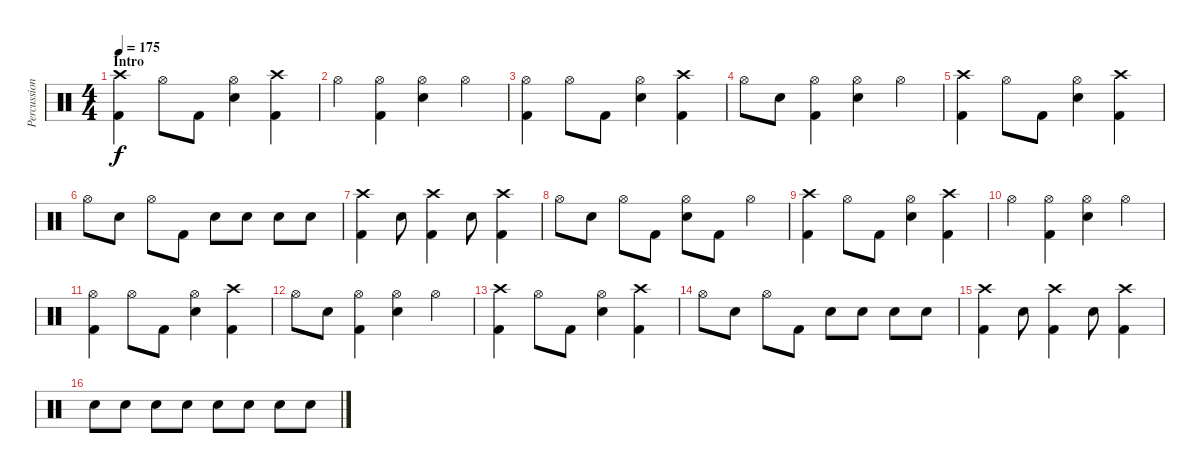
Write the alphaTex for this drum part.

\track ("Percussion" "Percussion") {instrument percussion}
\staff {score}
\articulation defaults
\ts (4 4)
\section ("" "Intro")
\tempo 175
\clef neutral
\ks c
("Crash high (hit)" "Kick (hit) 2").4{dy f} "Hi-Hat (open)".8 "Kick (hit) 2".8 ("Hi-Hat (open)" "Electric Snare (hit)").4 ("Crash high (hit)" "Kick (hit) 2").4 |
"Hi-Hat (open)".4 ("Hi-Hat (open)" "Kick (hit) 2").4 ("Hi-Hat (open)" "Electric Snare (hit)").4 "Hi-Hat (open)".4 |
("Hi-Hat (open)" "Kick (hit) 2").4 "Hi-Hat (open)".8 "Kick (hit) 2".8 ("Hi-Hat (open)" "Electric Snare (hit)").4 ("Crash high (hit)" "Kick (hit) 2").4 |
"Hi-Hat (open)".8 "Electric Snare (hit)".8 ("Hi-Hat (open)" "Kick (hit) 2").4 ("Hi-Hat (open)" "Electric Snare (hit)").4 "Hi-Hat (open)".4 |
("Crash high (hit)" "Kick (hit) 2").4 "Hi-Hat (open)".8 "Kick (hit) 2".8 ("Hi-Hat (open)" "Electric Snare (hit)").4 ("Crash high (hit)" "Kick (hit) 2").4 |
"Hi-Hat (open)".8 "Electric Snare (hit)".8 "Hi-Hat (open)".8 "Kick (hit) 2".8 "Electric Snare (hit)".8 "Electric Snare (hit)".8 "Electric Snare (hit)".8 "Electric Snare (hit)".8 |
("Crash high (hit)" "Kick (hit) 2").4 "Electric Snare (hit)".8 ("Crash high (hit)" "Kick (hit) 2").4 "Electric Snare (hit)".8 ("Crash high (hit)" "Kick (hit) 2").4 |
"Hi-Hat (open)".8 "Electric Snare (hit)".8 "Hi-Hat (open)".8 "Kick (hit) 2".8 ("Hi-Hat (open)" "Electric Snare (hit)").8 "Kick (hit) 2".8 "Hi-Hat (open)".4 |
("Crash high (hit)" "Kick (hit) 2").4 "Hi-Hat (open)".8 "Kick (hit) 2".8 ("Hi-Hat (open)" "Electric Snare (hit)").4 ("Crash high (hit)" "Kick (hit) 2").4 |
"Hi-Hat (open)".4 ("Hi-Hat (open)" "Kick (hit) 2").4 ("Hi-Hat (open)" "Electric Snare (hit)").4 "Hi-Hat (open)".4 |
("Hi-Hat (open)" "Kick (hit) 2").4 "Hi-Hat (open)".8 "Kick (hit) 2".8 ("Hi-Hat (open)" "Electric Snare (hit)").4 ("Crash high (hit)" "Kick (hit) 2").4 |
"Hi-Hat (open)".8 "Electric Snare (hit)".8 ("Hi-Hat (open)" "Kick (hit) 2").4 ("Hi-Hat (open)" "Electric Snare (hit)").4 "Hi-Hat (open)".4 |
("Crash high (hit)" "Kick (hit) 2").4 "Hi-Hat (open)".8 "Kick (hit) 2".8 ("Hi-Hat (open)" "Electric Snare (hit)").4 ("Crash high (hit)" "Kick (hit) 2").4 |
"Hi-Hat (open)".8 "Electric Snare (hit)".8 "Hi-Hat (open)".8 "Kick (hit) 2".8 "Electric Snare (hit)".8 "Electric Snare (hit)".8 "Electric Snare (hit)".8 "Electric Snare (hit)".8 |
("Crash high (hit)" "Kick (hit) 2").4 "Electric Snare (hit)".8 ("Crash high (hit)" "Kick (hit) 2").4 "Electric Snare (hit)".8 ("Crash high (hit)" "Kick (hit) 2").4 |
"Electric Snare (hit)".8 "Electric Snare (hit)".8 "Electric Snare (hit)".8 "Electric Snare (hit)".8 "Electric Snare (hit)".8 "Electric Snare (hit)".8 "Electric Snare (hit)".8 "Electric Snare (hit)".8
